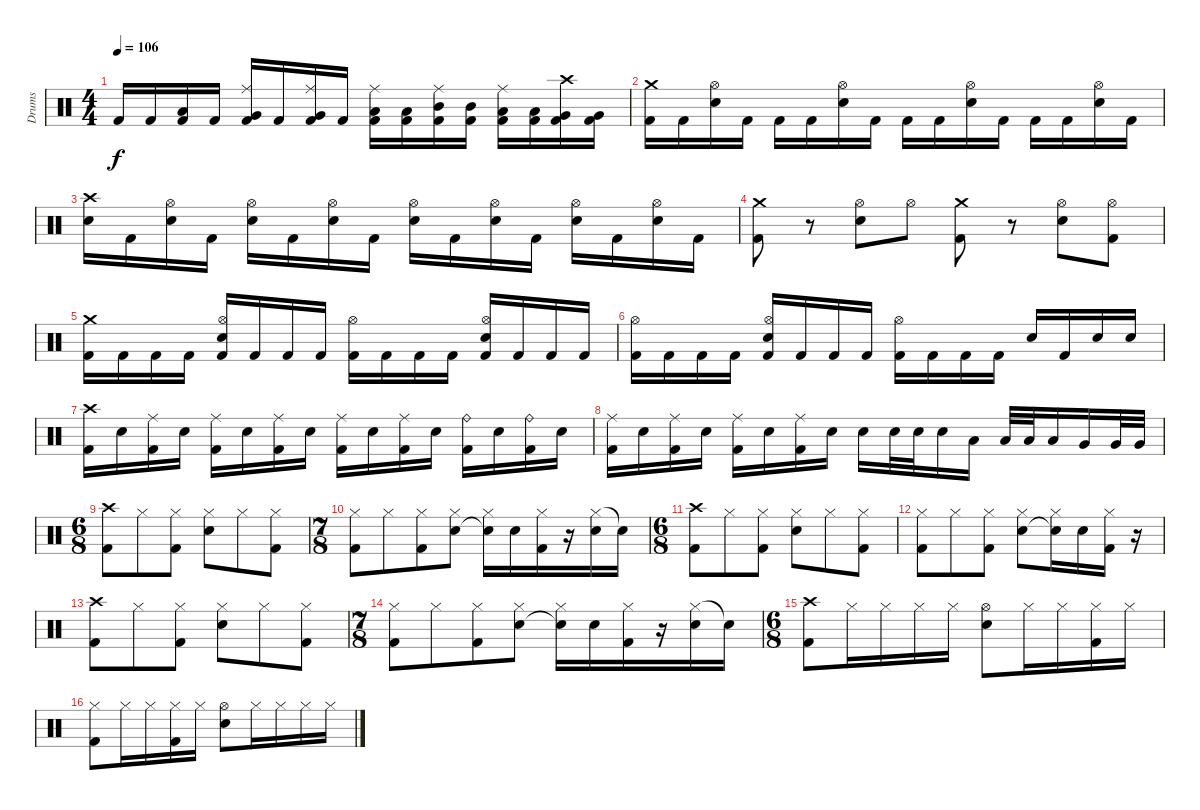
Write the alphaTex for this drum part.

\track ("Drums" "Drums") {instrument percussion}
\staff {score}
\articulation defaults
\ts (4 4)
\tempo 106
\clef neutral
\ks c "Kick (hit) 2".16{dy f} "Kick (hit) 2".16
("Low Tom (hit)" "Kick (hit) 2").16 "Kick (hit) 2".16 ("Ride (middle)" "Very Low Tom (hit)" "Kick (hit) 2").16 "Kick (hit) 2".16 ("Ride (middle)" "Very Low Tom (hit)" "Kick (hit) 2").16 "Kick (hit) 2".16 ("Ride (middle)" "Low Tom (hit)" "Kick (hit) 2").16 ("Low Tom (hit)" "Kick (hit) 2").16 ("Ride (middle)" "Mid Tom (hit)" "Kick (hit) 2").16 ("Mid Tom (hit)" "Kick (hit) 2").16 ("Ride (middle)" "Low Tom (hit)" "Kick (hit) 2").16 ("Low Tom (hit)" "Kick (hit) 2").16 ("Crash high (hit)" "Very Low Tom (hit)" "Kick (hit) 2").16 ("Very Low Tom (hit)" "Kick (hit) 2").16 |
("Crash medium (hit)" "Kick (hit) 2").16 "Kick (hit) 2".16 ("Hi-Hat (open)" "Electric Snare (hit)").16 "Kick (hit) 2".16 "Kick (hit) 2".16 "Kick (hit) 2".16 ("Hi-Hat (open)" "Electric Snare (hit)").16 "Kick (hit) 2".16 "Kick (hit) 2".16 "Kick (hit) 2".16 ("Hi-Hat (open)" "Electric Snare (hit)").16 "Kick (hit) 2".16 "Kick (hit) 2".16 "Kick (hit) 2".16 ("Hi-Hat (open)" "Electric Snare (hit)").16 "Kick (hit) 2".16 |
\ks aminor
("Crash high (hit)" "Electric Snare (hit)").16 "Kick (hit) 2".16 ("Hi-Hat (open)" "Electric Snare (hit)").16 "Kick (hit) 2".16 ("Hi-Hat (open)" "Electric Snare (hit)").16 "Kick (hit) 2".16 ("Hi-Hat (open)" "Electric Snare (hit)").16 "Kick (hit) 2".16 ("Hi-Hat (open)" "Electric Snare (hit)").16 "Kick (hit) 2".16 ("Hi-Hat (open)" "Electric Snare (hit)").16 "Kick (hit) 2".16 ("Hi-Hat (open)" "Electric Snare (hit)").16 "Kick (hit) 2".16 ("Hi-Hat (open)" "Electric Snare (hit)").16 "Kick (hit) 2".16 |
("Crash medium (hit)" "Kick (hit) 2").8 r.8 ("Hi-Hat (open)" "Electric Snare (hit)").8 "Hi-Hat (open)".8 ("Crash medium (hit)" "Kick (hit) 2").8 r.8 ("Hi-Hat (open)" "Electric Snare (hit)").8 ("Hi-Hat (open)" "Kick (hit) 2").8 |
("Crash medium (hit)" "Kick (hit) 2").16 "Kick (hit) 2".16 "Kick (hit) 2".16 "Kick (hit) 2".16 ("Hi-Hat (open)" "Electric Snare (hit)" "Kick (hit) 2").16 "Kick (hit) 2".16 "Kick (hit) 2".16 "Kick (hit) 2".16 ("Hi-Hat (open)" "Kick (hit) 2").16 "Kick (hit) 2".16 "Kick (hit) 2".16 "Kick (hit) 2".16 ("Hi-Hat (open)" "Electric Snare (hit)" "Kick (hit) 2").16 "Kick (hit) 2".16 "Kick (hit) 2".16 "Kick (hit) 2".16 |
("Hi-Hat (open)" "Kick (hit) 2").16 "Kick (hit) 2".16 "Kick (hit) 2".16 "Kick (hit) 2".16 ("Hi-Hat (open)" "Electric Snare (hit)" "Kick (hit) 2").16 "Kick (hit) 2".16 "Kick (hit) 2".16 "Kick (hit) 2".16 ("Hi-Hat (open)" "Kick (hit) 2").16 "Kick (hit) 2".16 "Kick (hit) 2".16 "Kick (hit) 2".16 "Electric Snare (hit)".16 "Kick (hit) 2".16 "Electric Snare (hit)".16 "Electric Snare (hit)".16 |
("Crash high (hit)" "Kick (hit) 2").16 "Electric Snare (hit)".16 ("Ride (middle)" "Kick (hit) 2").16 "Electric Snare (hit)".16 ("Ride (middle)" "Kick (hit) 2").16 "Electric Snare (hit)".16 ("Ride (middle)" "Kick (hit) 2").16 "Electric Snare (hit)".16 ("Ride (middle)" "Kick (hit) 2").16 "Electric Snare (hit)".16 ("Ride (middle)" "Kick (hit) 2").16 "Electric Snare (hit)".16 ("Ride (bell)" "Kick (hit) 2").16 "Electric Snare (hit)".16 ("Ride (bell)" "Kick (hit) 2").16 "Electric Snare (hit)".16 |
("Ride (middle)" "Kick (hit) 2").16 "Electric Snare (hit)".16 ("Ride (middle)" "Kick (hit) 2").16 "Electric Snare (hit)".16 ("Ride (middle)" "Kick (hit) 2").16 "Electric Snare (hit)".16 ("Ride (middle)" "Kick (hit) 2").16 "Electric Snare (hit)".16 "Electric Snare (hit)".16 "Electric Snare (hit)".32 "Electric Snare (hit)".32 "Electric Snare (hit)".16 "Low Tom (hit)".16 "Low Tom (hit)".32 "Low Tom (hit)".32 "Low Tom (hit)".16 "Very Low Tom (hit)".16 "Very Low Tom (hit)".32 "Very Low Tom (hit)".32 |
\ts (6 8)
\section ("" "")
("Crash high (hit)" "Kick (hit) 2").8 "Hi-Hat (closed)".8 ("Hi-Hat (closed)" "Kick (hit) 2").8 ("Hi-Hat (closed)" "Electric Snare (hit)").8 "Hi-Hat (closed)".8 ("Hi-Hat (closed)" "Kick (hit) 2").8 |
\ts (7 8)
("Hi-Hat (closed)" "Kick (hit) 2").8 "Hi-Hat (closed)".8 ("Hi-Hat (closed)" "Kick (hit) 2").8 ("Hi-Hat (closed)" "Electric Snare (hit)").8 ("Hi-Hat (closed)" "Snare (hit)"{t}).16 "Electric Snare (hit)".16 ("Hi-Hat (closed)" "Kick (hit) 2").16 r.16 ("Hi-Hat (closed)" "Electric Snare (hit)").16 "Snare (hit)"{t}.16 |
\ts (6 8)
("Crash high (hit)" "Kick (hit) 2").8 "Hi-Hat (closed)".8 ("Hi-Hat (closed)" "Kick (hit) 2").8 ("Hi-Hat (closed)" "Electric Snare (hit)").8 "Hi-Hat (closed)".8 ("Hi-Hat (closed)" "Kick (hit) 2").8 |
("Hi-Hat (closed)" "Kick (hit) 2").8 "Hi-Hat (closed)".8 ("Hi-Hat (closed)" "Kick (hit) 2").8 ("Hi-Hat (closed)" "Electric Snare (hit)").8 ("Hi-Hat (closed)" "Snare (hit)"{t}).16 "Electric Snare (hit)".16 ("Hi-Hat (closed)" "Kick (hit) 2").16 r.16 |
("Crash high (hit)" "Kick (hit) 2").8 "Hi-Hat (closed)".8 ("Hi-Hat (closed)" "Kick (hit) 2").8 ("Hi-Hat (closed)" "Electric Snare (hit)").8 "Hi-Hat (closed)".8 ("Hi-Hat (closed)" "Kick (hit) 2").8 |
\ts (7 8)
("Hi-Hat (closed)" "Kick (hit) 2").8 "Hi-Hat (closed)".8 ("Hi-Hat (closed)" "Kick (hit) 2").8 ("Hi-Hat (closed)" "Electric Snare (hit)").8 ("Hi-Hat (closed)" "Snare (hit)"{t}).16 "Electric Snare (hit)".16 ("Hi-Hat (closed)" "Kick (hit) 2").16 r.16 ("Hi-Hat (closed)" "Electric Snare (hit)").16 "Snare (hit)"{t}.16 |
\ts (6 8)
("Crash high (hit)" "Kick (hit) 2").8 "Hi-Hat (closed)".16 "Hi-Hat (closed)".16 "Hi-Hat (closed)".16 "Hi-Hat (closed)".16 ("Hi-Hat (open)" "Electric Snare (hit)").8 "Hi-Hat (closed)".16 "Hi-Hat (closed)".16 ("Hi-Hat (closed)" "Kick (hit) 2").16 "Hi-Hat (closed)".16 |
("Hi-Hat (closed)" "Kick (hit) 2").8 "Hi-Hat (closed)".16 "Hi-Hat (closed)".16 ("Hi-Hat (closed)" "Kick (hit) 2").16 "Hi-Hat (closed)".16 ("Hi-Hat (open)" "Electric Snare (hit)").8 "Hi-Hat (closed)".16 "Hi-Hat (closed)".16 "Hi-Hat (closed)".16 "Hi-Hat (closed)".16
